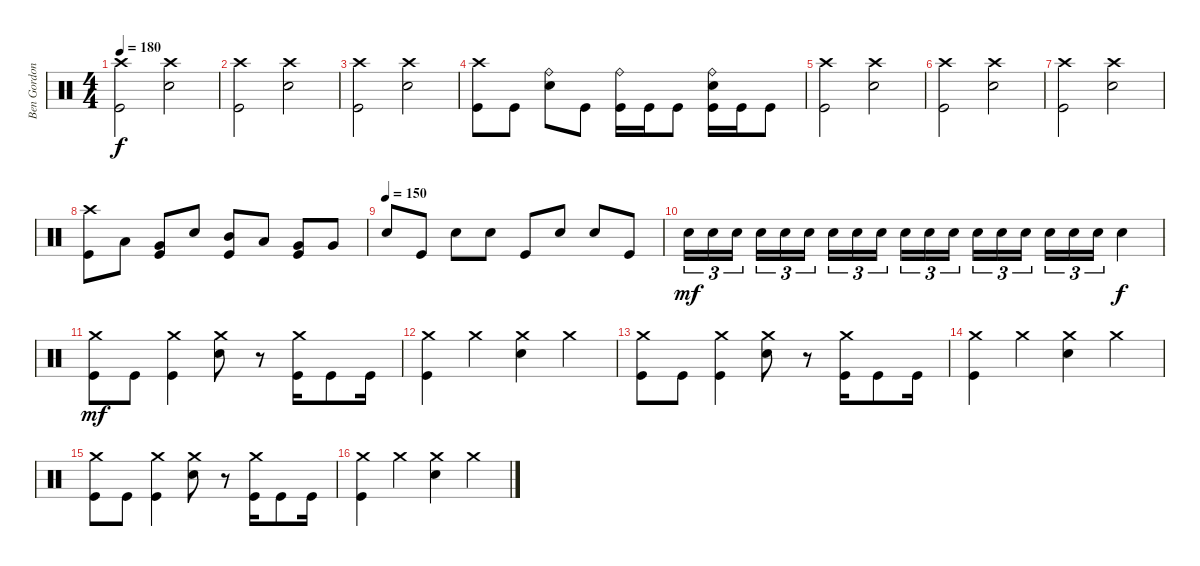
\track ("Ben Gordon" "Ben Gordon") {instrument percussion}
\staff {score}
\articulation defaults
\ts (4 4)
\tempo 180
\clef neutral
\ks c
("Crash high (hit)" "Kick (hit)").2{dy f} ("Crash high (hit)" "Electric Snare (hit)").2 |
("Crash high (hit)" "Kick (hit)").2 ("Crash high (hit)" "Electric Snare (hit)").2 |
("Crash high (hit)" "Kick (hit)").2 ("Crash high (hit)" "Electric Snare (hit)").2 |
("Crash high (hit)" "Kick (hit)").8 "Kick (hit)".8 ("Ride (bell)" "Electric Snare (hit)").8 "Kick (hit)".8 ("Ride (bell)" "Kick (hit)").16 "Kick (hit)".16 "Kick (hit)".8 ("Ride (bell)" "Electric Snare (hit)" "Kick (hit)").16 "Kick (hit)".16 "Kick (hit)".8 |
("Crash high (hit)" "Kick (hit)").2 ("Crash high (hit)" "Electric Snare (hit)").2 |
("Crash high (hit)" "Kick (hit)").2 ("Crash high (hit)" "Electric Snare (hit)").2 |
("Crash high (hit)" "Kick (hit)").2 ("Crash high (hit)" "Electric Snare (hit)").2 |
("Crash high (hit)" "Kick (hit)").8 "Low Tom (hit)".8 ("Very Low Tom (hit)" "Kick (hit)").8 "Electric Snare (hit)".8 ("Mid Tom (hit)" "Kick (hit)").8 "Low Tom (hit)".8 ("Very Low Tom (hit)" "Kick (hit)").8 "Very Low Tom (hit)".8 |
\tempo (150)
"Electric Snare (hit)".8 "Kick (hit)".8 "Electric Snare (hit)".8 "Electric Snare (hit)".8 "Kick (hit)".8 "Electric Snare (hit)".8 "Electric Snare (hit)".8 "Kick (hit)".8 |
"Electric Snare (hit)".16{tu (3 2) dy mf} "Electric Snare (hit)".16{tu (3 2)} "Electric Snare (hit)".16{tu (3 2) beam splitsecondary} "Electric Snare (hit)".16{tu (3 2)} "Electric Snare (hit)".16{tu (3 2)} "Electric Snare (hit)".16{tu (3 2)} "Electric Snare (hit)".16{tu (3 2)} "Electric Snare (hit)".16{tu (3 2)} "Electric Snare (hit)".16{tu (3 2) beam splitsecondary} "Electric Snare (hit)".16{tu (3 2)} "Electric Snare (hit)".16{tu (3 2)} "Electric Snare (hit)".16{tu (3 2)} "Electric Snare (hit)".16{tu (3 2)} "Electric Snare (hit)".16{tu (3 2)} "Electric Snare (hit)".16{tu (3 2) beam splitsecondary} "Electric Snare (hit)".16{tu (3 2)} "Electric Snare (hit)".16{tu (3 2)} "Electric Snare (hit)".16{tu (3 2)} "Electric Snare (hit)".4{dy f} |
("Crash medium (hit)" "Kick (hit)").8{dy mf} "Kick (hit)".8 ("Crash medium (hit)" "Kick (hit)").4 ("Crash medium (hit)" "Electric Snare (hit)").8 r.8 ("Crash medium (hit)" "Kick (hit)").16 "Kick (hit)".8 "Kick (hit)".16 |
("Crash medium (hit)" "Kick (hit)").4 "Crash medium (hit)".4 ("Crash medium (hit)" "Electric Snare (hit)").4 "Crash medium (hit)".4 |
("Crash medium (hit)" "Kick (hit)").8 "Kick (hit)".8 ("Crash medium (hit)" "Kick (hit)").4 ("Crash medium (hit)" "Electric Snare (hit)").8 r.8 ("Crash medium (hit)" "Kick (hit)").16 "Kick (hit)".8 "Kick (hit)".16 |
("Crash medium (hit)" "Kick (hit)").4 "Crash medium (hit)".4 ("Crash medium (hit)" "Electric Snare (hit)").4 "Crash medium (hit)".4 |
("Crash medium (hit)" "Kick (hit)").8 "Kick (hit)".8 ("Crash medium (hit)" "Kick (hit)").4 ("Crash medium (hit)" "Electric Snare (hit)").8 r.8 ("Crash medium (hit)" "Kick (hit)").16 "Kick (hit)".8 "Kick (hit)".16 |
("Crash medium (hit)" "Kick (hit)").4 "Crash medium (hit)".4 ("Crash medium (hit)" "Electric Snare (hit)").4 "Crash medium (hit)".4
